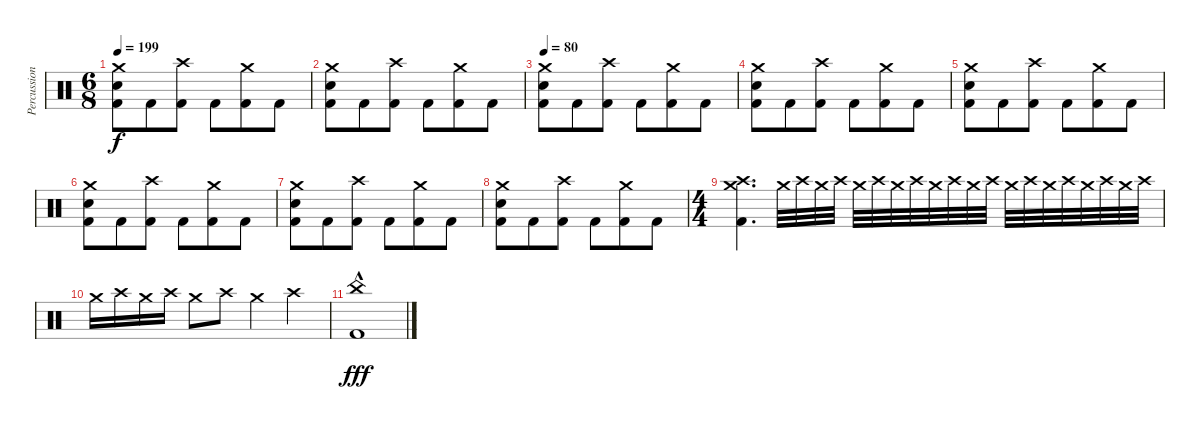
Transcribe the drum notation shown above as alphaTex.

\track ("Percussion" "Percussion") {instrument percussion}
\staff {score}
\articulation defaults
\ts (6 8)
\tempo 199
\clef neutral
\ks c
("Crash medium (hit)" "Electric Snare (hit)" "Kick (hit) 2").8{dy f} "Kick (hit) 2".8 ("Crash high (hit)" "Kick (hit) 2").8 "Kick (hit) 2".8 ("Crash medium (hit)" "Kick (hit) 2").8 "Kick (hit) 2".8 |
("Crash medium (hit)" "Electric Snare (hit)" "Kick (hit) 2").8 "Kick (hit) 2".8 ("Crash high (hit)" "Kick (hit) 2").8 "Kick (hit) 2".8 ("Crash medium (hit)" "Kick (hit) 2").8 "Kick (hit) 2".8 |
\tempo 80
("Crash medium (hit)" "Electric Snare (hit)" "Kick (hit) 2").8 "Kick (hit) 2".8 ("Crash high (hit)" "Kick (hit) 2").8 "Kick (hit) 2".8 ("Crash medium (hit)" "Kick (hit) 2").8 "Kick (hit) 2".8 |
("Crash medium (hit)" "Electric Snare (hit)" "Kick (hit) 2").8 "Kick (hit) 2".8 ("Crash high (hit)" "Kick (hit) 2").8 "Kick (hit) 2".8 ("Crash medium (hit)" "Kick (hit) 2").8 "Kick (hit) 2".8 |
("Crash medium (hit)" "Electric Snare (hit)" "Kick (hit) 2").8 "Kick (hit) 2".8 ("Crash high (hit)" "Kick (hit) 2").8 "Kick (hit) 2".8 ("Crash medium (hit)" "Kick (hit) 2").8 "Kick (hit) 2".8 |
("Crash medium (hit)" "Electric Snare (hit)" "Kick (hit) 2").8 "Kick (hit) 2".8 ("Crash high (hit)" "Kick (hit) 2").8 "Kick (hit) 2".8 ("Crash medium (hit)" "Kick (hit) 2").8 "Kick (hit) 2".8 |
("Crash medium (hit)" "Electric Snare (hit)" "Kick (hit) 2").8 "Kick (hit) 2".8 ("Crash high (hit)" "Kick (hit) 2").8 "Kick (hit) 2".8 ("Crash medium (hit)" "Kick (hit) 2").8 "Kick (hit) 2".8 |
("Crash medium (hit)" "Electric Snare (hit)" "Kick (hit) 2").8 "Kick (hit) 2".8 ("Crash high (hit)" "Kick (hit) 2").8 "Kick (hit) 2".8 ("Crash medium (hit)" "Kick (hit) 2").8 "Kick (hit) 2".8 |
\ts (4 4)
("Crash medium (hit)" "Crash high (hit)" "Kick (hit) 2").4{d} "Crash medium (hit)".32 "Crash high (hit)".32 "Crash medium (hit)".32 "Crash high (hit)".32 "Crash medium (hit)".32 "Crash high (hit)".32 "Crash medium (hit)".32 "Crash high (hit)".32 "Crash medium (hit)".32 "Crash high (hit)".32 "Crash medium (hit)".32 "Crash high (hit)".32 "Crash medium (hit)".32 "Crash high (hit)".32 "Crash medium (hit)".32 "Crash high (hit)".32 "Crash medium (hit)".32 "Crash high (hit)".32 "Crash medium (hit)".32 "Crash high (hit)".32 |
"Crash medium (hit)".16 "Crash high (hit)".16 "Crash medium (hit)".16 "Crash high (hit)".16 "Crash medium (hit)".8 "Crash high (hit)".8 "Crash medium (hit)".4 "Crash high (hit)".4 |
("China (hit)"{hac} "Kick (hit) 2"{hac}).1{dy fff}
